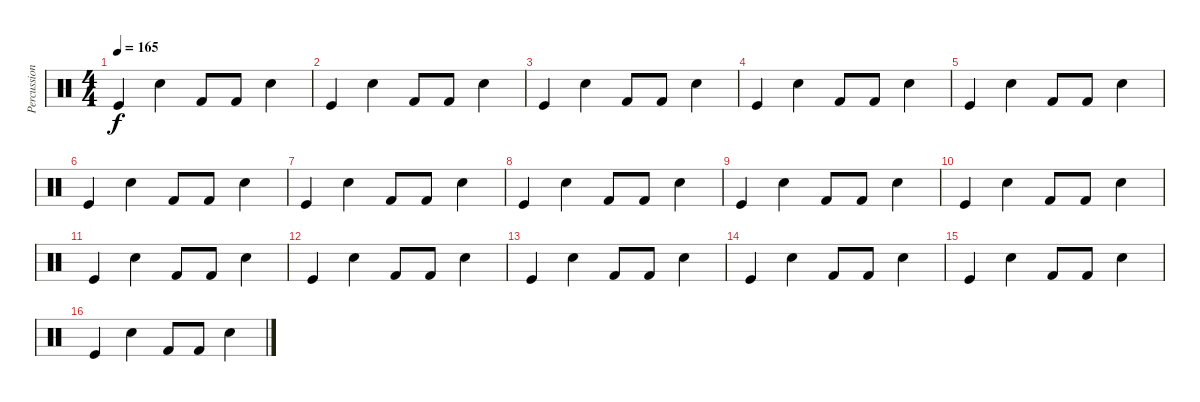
\track ("Percussions" "Percussion") {instrument percussion}
\staff {score}
\articulation defaults
\ts (4 4)
\tempo 165
\clef neutral
\ks c "Kick (hit)".4{dy f} "Snare (hit) 2".4 "Kick (hit) 2".8 "Kick (hit) 2".8 "Snare (hit) 2".4
|
"Kick (hit)".4 "Snare (hit) 2".4 "Kick (hit) 2".8 "Kick (hit) 2".8 "Snare (hit) 2".4 |
"Kick (hit)".4 "Snare (hit) 2".4 "Kick (hit) 2".8 "Kick (hit) 2".8 "Snare (hit) 2".4 |
"Kick (hit)".4 "Snare (hit) 2".4 "Kick (hit) 2".8 "Kick (hit) 2".8 "Snare (hit) 2".4 |
"Kick (hit)".4 "Snare (hit) 2".4 "Kick (hit) 2".8 "Kick (hit) 2".8 "Snare (hit) 2".4 |
"Kick (hit)".4 "Snare (hit) 2".4 "Kick (hit) 2".8 "Kick (hit) 2".8 "Snare (hit) 2".4 |
"Kick (hit)".4 "Snare (hit) 2".4 "Kick (hit) 2".8 "Kick (hit) 2".8 "Snare (hit) 2".4 |
"Kick (hit)".4 "Snare (hit) 2".4 "Kick (hit) 2".8 "Kick (hit) 2".8 "Snare (hit) 2".4 |
"Kick (hit)".4 "Snare (hit) 2".4 "Kick (hit) 2".8 "Kick (hit) 2".8 "Snare (hit) 2".4 |
"Kick (hit)".4 "Snare (hit) 2".4 "Kick (hit) 2".8 "Kick (hit) 2".8 "Snare (hit) 2".4 |
"Kick (hit)".4 "Snare (hit) 2".4 "Kick (hit) 2".8 "Kick (hit) 2".8 "Snare (hit) 2".4 |
"Kick (hit)".4 "Snare (hit) 2".4 "Kick (hit) 2".8 "Kick (hit) 2".8 "Snare (hit) 2".4 |
"Kick (hit)".4 "Snare (hit) 2".4 "Kick (hit) 2".8 "Kick (hit) 2".8 "Snare (hit) 2".4 |
"Kick (hit)".4 "Snare (hit) 2".4 "Kick (hit) 2".8 "Kick (hit) 2".8 "Snare (hit) 2".4 |
"Kick (hit)".4 "Snare (hit) 2".4 "Kick (hit) 2".8 "Kick (hit) 2".8 "Snare (hit) 2".4 |
"Kick (hit)".4 "Snare (hit) 2".4 "Kick (hit) 2".8 "Kick (hit) 2".8 "Snare (hit) 2".4
